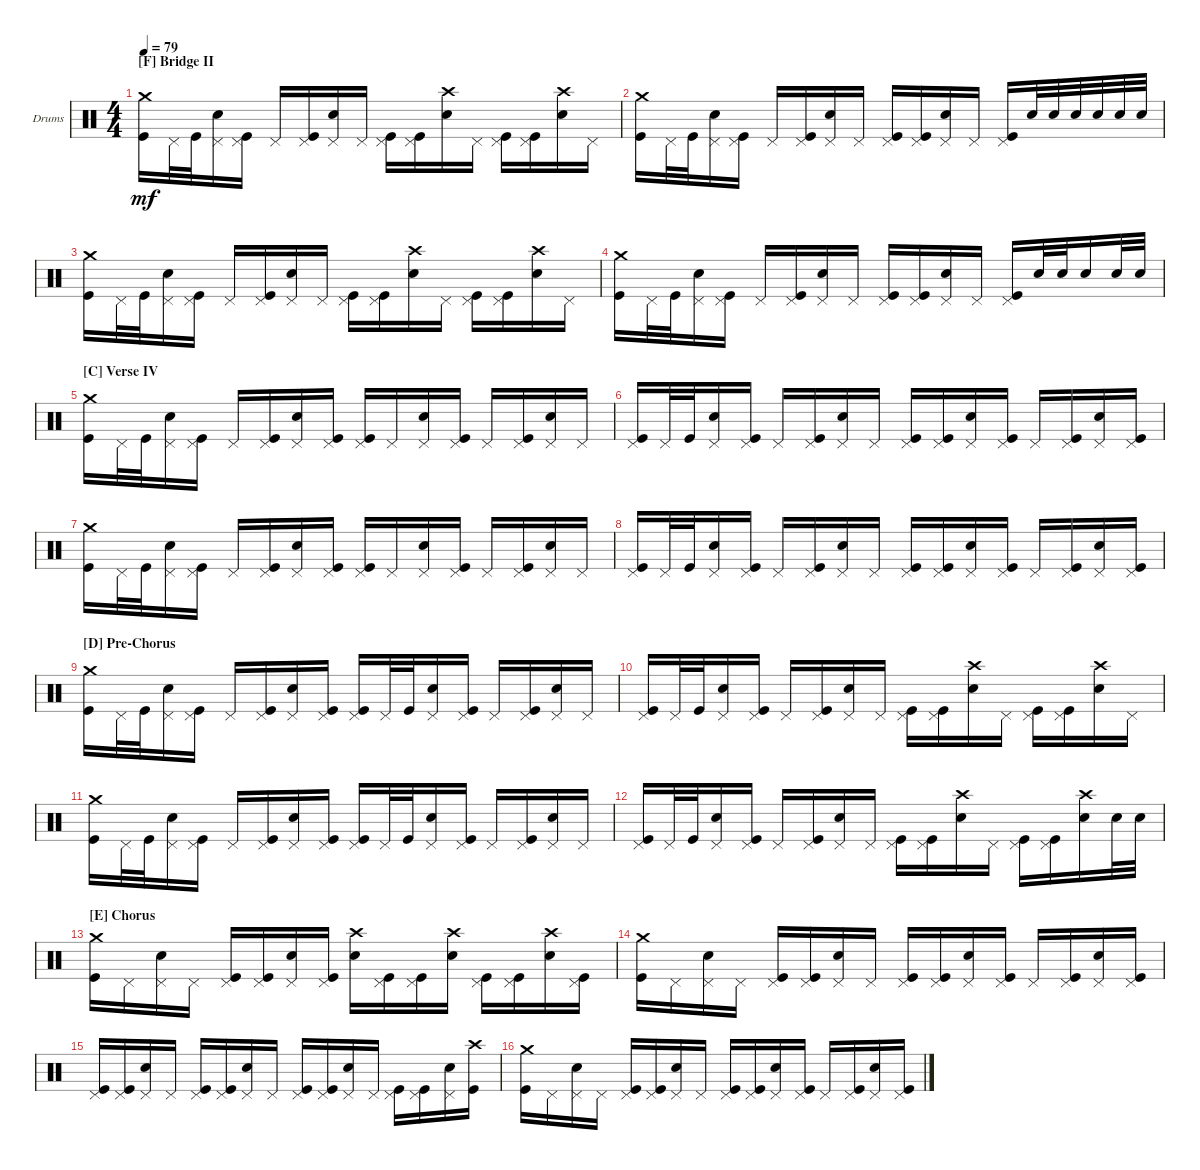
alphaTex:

\defaultSystemsLayout 4
\bracketExtendMode groupsimilarinstruments
\firstSystemTrackNameOrientation horizontal
\otherSystemsTrackNameOrientation horizontal
\track ("Drums" "Drums") {instrument percussion}
\staff {score}
\articulation defaults
\ts (4 4)
\section ("F" "Bridge II")
\tempo 79
\clef neutral
\ks c
("Kick (hit)" "Crash medium (hit)").16{dy mf} "Pedal Hi-Hat (hit)".32 "Kick (hit)".32{beam merge} ("Pedal Hi-Hat (hit)" "Snare (hit) 2").16 ("Pedal Hi-Hat (hit)" "Kick (hit)").16 "Pedal Hi-Hat (hit)".16 ("Pedal Hi-Hat (hit)" "Kick (hit)").16{beam merge} ("Pedal Hi-Hat (hit)" "Snare (hit) 2").16 "Pedal Hi-Hat (hit)".16 ("Kick (hit)" "Pedal Hi-Hat (hit)").16 ("Pedal Hi-Hat (hit)" "Kick (hit)").16{beam merge} ("Snare (hit) 2" "Crash high (hit)").16 "Pedal Hi-Hat (hit)".16 ("Pedal Hi-Hat (hit)" "Kick (hit)").16 ("Pedal Hi-Hat (hit)" "Kick (hit)").16{beam merge} ("Snare (hit) 2" "Crash high (hit)").16 "Pedal Hi-Hat (hit)".16 |
("Kick (hit)" "Crash medium (hit)").16 "Pedal Hi-Hat (hit)".32 "Kick (hit)".32{beam merge} ("Pedal Hi-Hat (hit)" "Snare (hit) 2").16 ("Pedal Hi-Hat (hit)" "Kick (hit)").16 "Pedal Hi-Hat (hit)".16 ("Pedal Hi-Hat (hit)" "Kick (hit)").16{beam merge} ("Pedal Hi-Hat (hit)" "Snare (hit) 2").16 "Pedal Hi-Hat (hit)".16 ("Kick (hit)" "Pedal Hi-Hat (hit)").16 ("Pedal Hi-Hat (hit)" "Kick (hit)").16{beam merge} ("Snare (hit) 2" "Pedal Hi-Hat (hit)").16 "Pedal Hi-Hat (hit)".16 ("Pedal Hi-Hat (hit)" "Kick (hit)").16 "Snare (hit) 2".32{beam merge} "Snare (hit) 2".32{beam merge} "Snare (hit) 2".32 "Snare (hit) 2".32{beam merge} "Snare (hit) 2".32 "Snare (hit) 2".32 |
("Kick (hit)" "Crash medium (hit)").16 "Pedal Hi-Hat (hit)".32 "Kick (hit)".32{beam merge} ("Pedal Hi-Hat (hit)" "Snare (hit) 2").16 ("Pedal Hi-Hat (hit)" "Kick (hit)").16 "Pedal Hi-Hat (hit)".16 ("Pedal Hi-Hat (hit)" "Kick (hit)").16{beam merge} ("Pedal Hi-Hat (hit)" "Snare (hit) 2").16 "Pedal Hi-Hat (hit)".16 ("Kick (hit)" "Pedal Hi-Hat (hit)").16 ("Pedal Hi-Hat (hit)" "Kick (hit)").16{beam merge} ("Snare (hit) 2" "Crash high (hit)").16 "Pedal Hi-Hat (hit)".16 ("Pedal Hi-Hat (hit)" "Kick (hit)").16 ("Pedal Hi-Hat (hit)" "Kick (hit)").16{beam merge} ("Snare (hit) 2" "Crash high (hit)").16 "Pedal Hi-Hat (hit)".16 |
("Kick (hit)" "Crash medium (hit)").16 "Pedal Hi-Hat (hit)".32 "Kick (hit)".32{beam merge} ("Pedal Hi-Hat (hit)" "Snare (hit) 2").16 ("Pedal Hi-Hat (hit)" "Kick (hit)").16 "Pedal Hi-Hat (hit)".16 ("Pedal Hi-Hat (hit)" "Kick (hit)").16{beam merge} ("Pedal Hi-Hat (hit)" "Snare (hit) 2").16 "Pedal Hi-Hat (hit)".16 ("Kick (hit)" "Pedal Hi-Hat (hit)").16 ("Pedal Hi-Hat (hit)" "Kick (hit)").16{beam merge} ("Snare (hit) 2" "Pedal Hi-Hat (hit)").16 "Pedal Hi-Hat (hit)".16 ("Pedal Hi-Hat (hit)" "Kick (hit)").16 "Snare (hit) 2".32{beam merge} "Snare (hit) 2".32{beam merge} "Snare (hit) 2".16 "Snare (hit) 2".32 "Snare (hit) 2".32 |
\section ("C" "Verse IV")
("Kick (hit)" "Crash medium (hit)").16 "Pedal Hi-Hat (hit)".32 "Kick (hit)".32{beam merge} ("Pedal Hi-Hat (hit)" "Snare (hit) 2").16 ("Pedal Hi-Hat (hit)" "Kick (hit)").16 "Pedal Hi-Hat (hit)".16 ("Pedal Hi-Hat (hit)" "Kick (hit)").16{beam merge} ("Pedal Hi-Hat (hit)" "Snare (hit) 2").16 ("Pedal Hi-Hat (hit)" "Kick (hit)").16 ("Kick (hit)" "Pedal Hi-Hat (hit)").16 "Pedal Hi-Hat (hit)".16{beam merge} ("Pedal Hi-Hat (hit)" "Snare (hit) 2").16 ("Pedal Hi-Hat (hit)" "Kick (hit)").16 "Pedal Hi-Hat (hit)".16 ("Pedal Hi-Hat (hit)" "Kick (hit)").16{beam merge} ("Pedal Hi-Hat (hit)" "Snare (hit) 2").16 "Pedal Hi-Hat (hit)".16 |
("Kick (hit)" "Pedal Hi-Hat (hit)").16 "Pedal Hi-Hat (hit)".32 "Kick (hit)".32{beam merge} ("Pedal Hi-Hat (hit)" "Snare (hit) 2").16 ("Pedal Hi-Hat (hit)" "Kick (hit)").16 "Pedal Hi-Hat (hit)".16 ("Pedal Hi-Hat (hit)" "Kick (hit)").16{beam merge} ("Pedal Hi-Hat (hit)" "Snare (hit) 2").16 "Pedal Hi-Hat (hit)".16 ("Kick (hit)" "Pedal Hi-Hat (hit)").16 ("Pedal Hi-Hat (hit)" "Kick (hit)").16{beam merge} ("Pedal Hi-Hat (hit)" "Snare (hit) 2").16 ("Pedal Hi-Hat (hit)" "Kick (hit)").16 "Pedal Hi-Hat (hit)".16 ("Pedal Hi-Hat (hit)" "Kick (hit)").16{beam merge} ("Pedal Hi-Hat (hit)" "Snare (hit) 2").16 ("Pedal Hi-Hat (hit)" "Kick (hit)").16 |
("Kick (hit)" "Crash medium (hit)").16 "Pedal Hi-Hat (hit)".32 "Kick (hit)".32{beam merge} ("Pedal Hi-Hat (hit)" "Snare (hit) 2").16 ("Pedal Hi-Hat (hit)" "Kick (hit)").16 "Pedal Hi-Hat (hit)".16 ("Pedal Hi-Hat (hit)" "Kick (hit)").16{beam merge} ("Pedal Hi-Hat (hit)" "Snare (hit) 2").16 ("Pedal Hi-Hat (hit)" "Kick (hit)").16 ("Kick (hit)" "Pedal Hi-Hat (hit)").16 "Pedal Hi-Hat (hit)".16{beam merge} ("Pedal Hi-Hat (hit)" "Snare (hit) 2").16 ("Pedal Hi-Hat (hit)" "Kick (hit)").16 "Pedal Hi-Hat (hit)".16 ("Pedal Hi-Hat (hit)" "Kick (hit)").16{beam merge} ("Pedal Hi-Hat (hit)" "Snare (hit) 2").16 "Pedal Hi-Hat (hit)".16 |
("Kick (hit)" "Pedal Hi-Hat (hit)").16 "Pedal Hi-Hat (hit)".32 "Kick (hit)".32{beam merge} ("Pedal Hi-Hat (hit)" "Snare (hit) 2").16 ("Pedal Hi-Hat (hit)" "Kick (hit)").16 "Pedal Hi-Hat (hit)".16 ("Pedal Hi-Hat (hit)" "Kick (hit)").16{beam merge} ("Pedal Hi-Hat (hit)" "Snare (hit) 2").16 "Pedal Hi-Hat (hit)".16 ("Kick (hit)" "Pedal Hi-Hat (hit)").16 ("Pedal Hi-Hat (hit)" "Kick (hit)").16{beam merge} ("Pedal Hi-Hat (hit)" "Snare (hit) 2").16 ("Pedal Hi-Hat (hit)" "Kick (hit)").16 "Pedal Hi-Hat (hit)".16 ("Pedal Hi-Hat (hit)" "Kick (hit)").16{beam merge} ("Pedal Hi-Hat (hit)" "Snare (hit) 2").16 ("Pedal Hi-Hat (hit)" "Kick (hit)").16 |
\section ("D" "Pre-Chorus")
("Kick (hit)" "Crash medium (hit)").16 "Pedal Hi-Hat (hit)".32 "Kick (hit)".32{beam merge} ("Pedal Hi-Hat (hit)" "Snare (hit) 2").16 ("Pedal Hi-Hat (hit)" "Kick (hit)").16 "Pedal Hi-Hat (hit)".16 ("Pedal Hi-Hat (hit)" "Kick (hit)").16{beam merge} ("Pedal Hi-Hat (hit)" "Snare (hit) 2").16 ("Pedal Hi-Hat (hit)" "Kick (hit)").16 ("Kick (hit)" "Pedal Hi-Hat (hit)").16 "Pedal Hi-Hat (hit)".32 "Kick (hit)".32{beam merge} ("Pedal Hi-Hat (hit)" "Snare (hit) 2").16 ("Pedal Hi-Hat (hit)" "Kick (hit)").16 "Pedal Hi-Hat (hit)".16 ("Pedal Hi-Hat (hit)" "Kick (hit)").16{beam merge} ("Pedal Hi-Hat (hit)" "Snare (hit) 2").16 "Pedal Hi-Hat (hit)".16 |
("Kick (hit)" "Pedal Hi-Hat (hit)").16 "Pedal Hi-Hat (hit)".32 "Kick (hit)".32 ("Pedal Hi-Hat (hit)" "Snare (hit) 2").16 ("Pedal Hi-Hat (hit)" "Kick (hit)").16 "Pedal Hi-Hat (hit)".16 ("Pedal Hi-Hat (hit)" "Kick (hit)").16 ("Pedal Hi-Hat (hit)" "Snare (hit) 2").16 "Pedal Hi-Hat (hit)".16 ("Kick (hit)" "Pedal Hi-Hat (hit)").16 ("Pedal Hi-Hat (hit)" "Kick (hit)").16{beam merge} ("Snare (hit) 2" "Crash high (hit)").16 "Pedal Hi-Hat (hit)".16 ("Pedal Hi-Hat (hit)" "Kick (hit)").16 ("Pedal Hi-Hat (hit)" "Kick (hit)").16{beam merge} ("Snare (hit) 2" "Crash high (hit)").16 "Pedal Hi-Hat (hit)".16 |
("Kick (hit)" "Crash medium (hit)").16 "Pedal Hi-Hat (hit)".32 "Kick (hit)".32{beam merge} ("Pedal Hi-Hat (hit)" "Snare (hit) 2").16 ("Pedal Hi-Hat (hit)" "Kick (hit)").16 "Pedal Hi-Hat (hit)".16 ("Pedal Hi-Hat (hit)" "Kick (hit)").16{beam merge} ("Pedal Hi-Hat (hit)" "Snare (hit) 2").16 ("Pedal Hi-Hat (hit)" "Kick (hit)").16 ("Kick (hit)" "Pedal Hi-Hat (hit)").16 "Pedal Hi-Hat (hit)".32 "Kick (hit)".32{beam merge} ("Pedal Hi-Hat (hit)" "Snare (hit) 2").16 ("Pedal Hi-Hat (hit)" "Kick (hit)").16 "Pedal Hi-Hat (hit)".16 ("Pedal Hi-Hat (hit)" "Kick (hit)").16{beam merge} ("Pedal Hi-Hat (hit)" "Snare (hit) 2").16 "Pedal Hi-Hat (hit)".16 |
("Kick (hit)" "Pedal Hi-Hat (hit)").16 "Pedal Hi-Hat (hit)".32 "Kick (hit)".32 ("Pedal Hi-Hat (hit)" "Snare (hit) 2").16 ("Pedal Hi-Hat (hit)" "Kick (hit)").16 "Pedal Hi-Hat (hit)".16 ("Pedal Hi-Hat (hit)" "Kick (hit)").16 ("Pedal Hi-Hat (hit)" "Snare (hit) 2").16 "Pedal Hi-Hat (hit)".16 ("Kick (hit)" "Pedal Hi-Hat (hit)").16 ("Pedal Hi-Hat (hit)" "Kick (hit)").16{beam merge} ("Snare (hit) 2" "Crash high (hit)").16 "Pedal Hi-Hat (hit)".16 ("Pedal Hi-Hat (hit)" "Kick (hit)").16 ("Pedal Hi-Hat (hit)" "Kick (hit)").16{beam merge} ("Snare (hit) 2" "Crash high (hit)").16 "Snare (hit) 2".32 "Snare (hit) 2".32 |
\section ("E" "Chorus")
("Kick (hit)" "Crash medium (hit)").16 "Pedal Hi-Hat (hit)".16{beam merge} ("Pedal Hi-Hat (hit)" "Snare (hit) 2").16 "Pedal Hi-Hat (hit)".16 ("Pedal Hi-Hat (hit)" "Kick (hit)").16 ("Pedal Hi-Hat (hit)" "Kick (hit)").16{beam merge} ("Pedal Hi-Hat (hit)" "Snare (hit) 2").16 ("Pedal Hi-Hat (hit)" "Kick (hit)").16 ("Snare (hit) 2" "Crash high (hit)").16 ("Pedal Hi-Hat (hit)" "Kick (hit)").16{beam merge} ("Pedal Hi-Hat (hit)" "Kick (hit)").16 ("Snare (hit) 2" "Crash high (hit)").16 ("Pedal Hi-Hat (hit)" "Kick (hit)").16 ("Pedal Hi-Hat (hit)" "Kick (hit)").16{beam merge} ("Snare (hit) 2" "Crash high (hit)").16 ("Pedal Hi-Hat (hit)" "Kick (hit)").16 |
("Kick (hit)" "Crash medium (hit)").16 "Pedal Hi-Hat (hit)".16{beam merge} ("Pedal Hi-Hat (hit)" "Snare (hit) 2").16 "Pedal Hi-Hat (hit)".16 ("Pedal Hi-Hat (hit)" "Kick (hit)").16 ("Pedal Hi-Hat (hit)" "Kick (hit)").16{beam merge} ("Pedal Hi-Hat (hit)" "Snare (hit) 2").16 "Pedal Hi-Hat (hit)".16 ("Kick (hit)" "Pedal Hi-Hat (hit)").16 ("Pedal Hi-Hat (hit)" "Kick (hit)").16{beam merge} ("Pedal Hi-Hat (hit)" "Snare (hit) 2").16 ("Pedal Hi-Hat (hit)" "Kick (hit)").16 "Pedal Hi-Hat (hit)".16 ("Pedal Hi-Hat (hit)" "Kick (hit)").16{beam merge} ("Pedal Hi-Hat (hit)" "Snare (hit) 2").16 ("Pedal Hi-Hat (hit)" "Kick (hit)").16 |
("Kick (hit)" "Pedal Hi-Hat (hit)").16 ("Pedal Hi-Hat (hit)" "Kick (hit)").16{beam merge} ("Pedal Hi-Hat (hit)" "Snare (hit) 2").16 "Pedal Hi-Hat (hit)".16 ("Pedal Hi-Hat (hit)" "Kick (hit)").16 ("Pedal Hi-Hat (hit)" "Kick (hit)").16{beam merge} ("Pedal Hi-Hat (hit)" "Snare (hit) 2").16 "Pedal Hi-Hat (hit)".16 ("Kick (hit)" "Pedal Hi-Hat (hit)").16 ("Pedal Hi-Hat (hit)" "Kick (hit)").16{beam merge} ("Pedal Hi-Hat (hit)" "Snare (hit) 2").16 "Pedal Hi-Hat (hit)".16 ("Pedal Hi-Hat (hit)" "Kick (hit)").16 ("Pedal Hi-Hat (hit)" "Kick (hit)").16{beam merge} ("Pedal Hi-Hat (hit)" "Snare (hit) 2").16 ("Kick (hit)" "Crash high (hit)").16 |
("Kick (hit)" "Crash medium (hit)").16 "Pedal Hi-Hat (hit)".16{beam merge} ("Pedal Hi-Hat (hit)" "Snare (hit) 2").16 "Pedal Hi-Hat (hit)".16 ("Pedal Hi-Hat (hit)" "Kick (hit)").16 ("Pedal Hi-Hat (hit)" "Kick (hit)").16{beam merge} ("Pedal Hi-Hat (hit)" "Snare (hit) 2").16 "Pedal Hi-Hat (hit)".16 ("Kick (hit)" "Pedal Hi-Hat (hit)").16 ("Pedal Hi-Hat (hit)" "Kick (hit)").16{beam merge} ("Pedal Hi-Hat (hit)" "Snare (hit) 2").16 ("Pedal Hi-Hat (hit)" "Kick (hit)").16 "Pedal Hi-Hat (hit)".16 ("Pedal Hi-Hat (hit)" "Kick (hit)").16{beam merge} ("Pedal Hi-Hat (hit)" "Snare (hit) 2").16 ("Pedal Hi-Hat (hit)" "Kick (hit)").16
